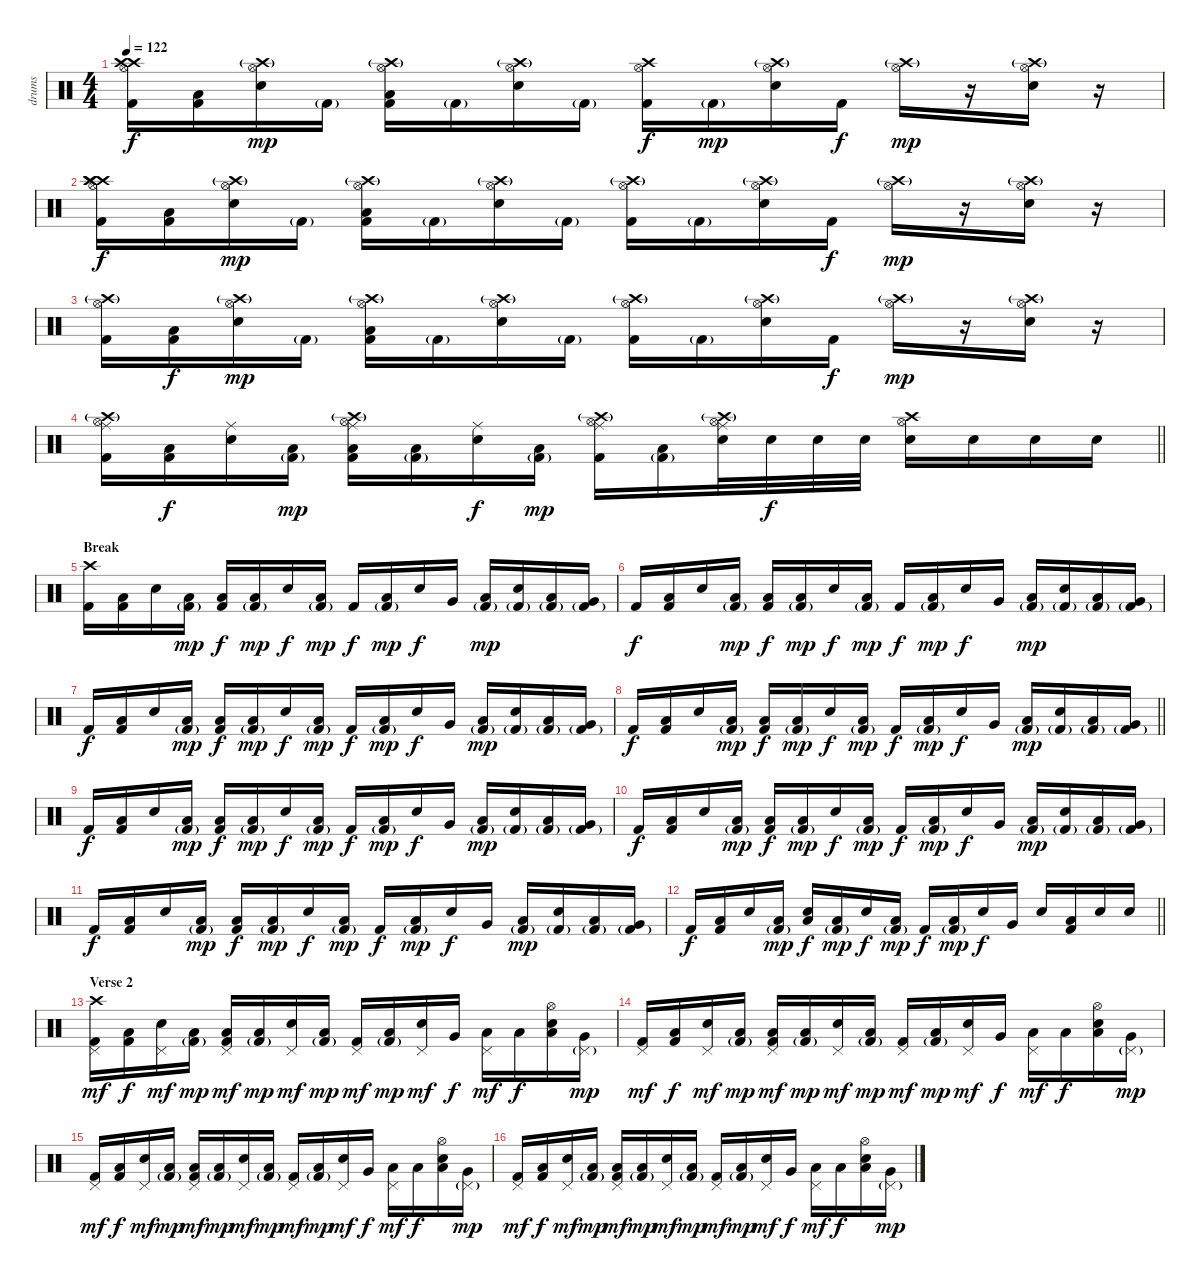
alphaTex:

\track ("drums" "drums") {instrument percussion}
\staff {score}
\articulation defaults
\ts (4 4)
\tempo 122
\clef neutral
\ks c
("Crash high (hit)" "Kick (hit) 2" "Crash high (hit)" "Hi-Hat (open)").16{dy f} ("Low Floor Tom (hit)" "Kick (hit) 2").16 ("Snare (hit) 2" "Crash high (hit)"{g} "Hi-Hat (open)").16{dy mp} "Kick (hit) 2"{g}.16{bd 60} ("Kick (hit) 2" "Low Floor Tom (hit)" "Crash high (hit)"{g} "Hi-Hat (open)").16 "Kick (hit) 2"{g}.16{bd 60} ("Snare (hit) 2" "Crash high (hit)"{g} "Hi-Hat (open)").16 "Kick (hit) 2"{g}.16{bu 60} ("Kick (hit) 2" "Crash high (hit)" "Hi-Hat (open)").16{dy f} "Kick (hit) 2"{g}.16{bd 60 dy mp} ("Snare (hit) 2" "Crash high (hit)"{g} "Hi-Hat (open)").16 "Kick (hit) 2".16{dy f} ("Crash high (hit)"{g} "Hi-Hat (open)").16{bd 60 dy mp} r.16 ("Snare (hit) 2" "Crash high (hit)"{g} "Hi-Hat (open)").16{bd 60} r.16 |
("Crash high (hit)" "Kick (hit) 2" "Crash high (hit)" "Crash high (hit)" "Hi-Hat (open)").16{dy f} ("Low Floor Tom (hit)" "Kick (hit) 2").16 ("Snare (hit) 2" "Crash high (hit)"{g} "Hi-Hat (open)").16{dy mp} "Kick (hit) 2"{g}.16{bd 60} ("Kick (hit) 2" "Low Floor Tom (hit)" "Crash high (hit)"{g} "Hi-Hat (open)").16 "Kick (hit) 2"{g}.16{bd 60} ("Snare (hit) 2" "Crash high (hit)"{g} "Hi-Hat (open)").16 "Kick (hit) 2"{g}.16{bu 60} ("Kick (hit) 2" "Crash high (hit)"{g} "Hi-Hat (open)").16 "Kick (hit) 2"{g}.16{bd 60} ("Snare (hit) 2" "Crash high (hit)"{g} "Hi-Hat (open)").16 "Kick (hit) 2".16{dy f} ("Crash high (hit)"{g} "Hi-Hat (open)").16{bd 60 dy mp} r.16 ("Snare (hit) 2" "Crash high (hit)"{g} "Hi-Hat (open)").16{bd 60} r.16 |
("Kick (hit) 2" "Crash high (hit)"{g} "Hi-Hat (open)").16 ("Low Floor Tom (hit)" "Kick (hit) 2").16{dy f} ("Snare (hit) 2" "Crash high (hit)"{g} "Hi-Hat (open)").16{dy mp} "Kick (hit) 2"{g}.16{bd 60} ("Kick (hit) 2" "Low Floor Tom (hit)" "Crash high (hit)"{g} "Hi-Hat (open)").16 "Kick (hit) 2"{g}.16{bd 60} ("Snare (hit) 2" "Crash high (hit)"{g} "Hi-Hat (open)").16 "Kick (hit) 2"{g}.16{bu 60} ("Kick (hit) 2" "Crash high (hit)"{g} "Hi-Hat (open)").16 "Kick (hit) 2"{g}.16{bd 60} ("Snare (hit) 2" "Crash high (hit)"{g} "Hi-Hat (open)").16 "Kick (hit) 2".16{dy f} ("Crash high (hit)"{g} "Hi-Hat (open)").16{bd 60 dy mp} r.16 ("Snare (hit) 2" "Crash high (hit)"{g} "Hi-Hat (open)").16{bd 60} r.16 |
\barLineRight lightlight
("Hi-Hat (open)" "Kick (hit) 2" "Crash high (hit)"{g} "Ride (middle)").16 ("Low Floor Tom (hit)" "Kick (hit) 2").16{dy f} ("Snare (hit) 2" "Ride (middle)").16 ("Low Floor Tom (hit)" "Kick (hit) 2"{g}).16{bd 60 dy mp} ("Hi-Hat (open)" "Kick (hit) 2" "Low Floor Tom (hit)" "Crash high (hit)"{g} "Ride (middle)").16 ("Low Floor Tom (hit)" "Kick (hit) 2"{g}).16{bd 60} ("Snare (hit) 2" "Ride (middle)").16{dy f} ("Low Floor Tom (hit)" "Kick (hit) 2"{g}).16{bu 60 dy mp} ("Hi-Hat (open)" "Kick (hit) 2" "Crash high (hit)"{g} "Ride (middle)").16 ("Low Floor Tom (hit)" "Kick (hit) 2"{g}).16{bd 60} ("Hi-Hat (open)" "Snare (hit) 2" "Crash high (hit)"{g} "Ride (middle)").32 "Snare (hit) 2".32{dy f} "Snare (hit) 2".32 "Snare (hit) 2".32 ("Hi-Hat (open)" "Snare (hit) 2" "Crash high (hit)").16 "Snare (hit) 2".16 "Snare (hit) 2".16 "Snare (hit) 2".16 |
\section ("" "Break")
("Crash high (hit)" "Kick (hit) 2").16 ("Low Floor Tom (hit)" "Kick (hit) 2").16 "Snare (hit) 2".16 ("Low Floor Tom (hit)" "Kick (hit) 2"{g}).16{bd 60 dy mp} ("Kick (hit) 2" "Low Floor Tom (hit)").16{dy f} ("Low Floor Tom (hit)" "Kick (hit) 2"{g}).16{bd 60 dy mp} "Snare (hit) 2".16{dy f} ("Low Floor Tom (hit)" "Kick (hit) 2"{g}).16{bu 60 dy mp} "Kick (hit) 2".16{dy f} ("Low Floor Tom (hit)" "Kick (hit) 2"{g}).16{bd 60 dy mp} "Snare (hit) 2".16{dy f} "Very Low Tom (hit)".16 ("Low Floor Tom (hit)" "Kick (hit) 2"{g}).16{bd 60 dy mp} ("Snare (hit) 2" "Kick (hit) 2"{g}).16{bu 60} ("Low Floor Tom (hit)" "Kick (hit) 2"{g}).16{bd 60} ("Very Low Tom (hit)" "Kick (hit) 2"{g}).16{bd 60} |
"Kick (hit) 2".16{dy f} ("Low Floor Tom (hit)" "Kick (hit) 2").16 "Snare (hit) 2".16 ("Low Floor Tom (hit)" "Kick (hit) 2"{g}).16{bd 60 dy mp} ("Kick (hit) 2" "Low Floor Tom (hit)").16{dy f} ("Low Floor Tom (hit)" "Kick (hit) 2"{g}).16{bd 60 dy mp} "Snare (hit) 2".16{dy f} ("Low Floor Tom (hit)" "Kick (hit) 2"{g}).16{bu 60 dy mp} "Kick (hit) 2".16{dy f} ("Low Floor Tom (hit)" "Kick (hit) 2"{g}).16{bd 60 dy mp} "Snare (hit) 2".16{dy f} "Very Low Tom (hit)".16 ("Low Floor Tom (hit)" "Kick (hit) 2"{g}).16{bd 60 dy mp} ("Snare (hit) 2" "Kick (hit) 2"{g}).16{bu 60} ("Low Floor Tom (hit)" "Kick (hit) 2"{g}).16{bd 60} ("Very Low Tom (hit)" "Kick (hit) 2"{g}).16{bd 60} |
"Kick (hit) 2".16{dy f} ("Low Floor Tom (hit)" "Kick (hit) 2").16 "Snare (hit) 2".16 ("Low Floor Tom (hit)" "Kick (hit) 2"{g}).16{bd 60 dy mp} ("Kick (hit) 2" "Low Floor Tom (hit)").16{dy f} ("Low Floor Tom (hit)" "Kick (hit) 2"{g}).16{bd 60 dy mp} "Snare (hit) 2".16{dy f} ("Low Floor Tom (hit)" "Kick (hit) 2"{g}).16{bu 60 dy mp} "Kick (hit) 2".16{dy f} ("Low Floor Tom (hit)" "Kick (hit) 2"{g}).16{bd 60 dy mp} "Snare (hit) 2".16{dy f} "Very Low Tom (hit)".16 ("Low Floor Tom (hit)" "Kick (hit) 2"{g}).16{bd 60 dy mp} ("Snare (hit) 2" "Kick (hit) 2"{g}).16{bu 60} ("Low Floor Tom (hit)" "Kick (hit) 2"{g}).16{bd 60} ("Very Low Tom (hit)" "Kick (hit) 2"{g}).16{bd 60} |
\barLineRight lightlight "Kick (hit) 2".16{dy f}
("Low Floor Tom (hit)" "Kick (hit) 2").16 "Snare (hit) 2".16 ("Low Floor Tom (hit)" "Kick (hit) 2"{g}).16{bd 60 dy mp} ("Kick (hit) 2" "Low Floor Tom (hit)").16{dy f} ("Low Floor Tom (hit)" "Kick (hit) 2"{g}).16{bd 60 dy mp} "Snare (hit) 2".16{dy f} ("Low Floor Tom (hit)" "Kick (hit) 2"{g}).16{bu 60 dy mp} "Kick (hit) 2".16{dy f} ("Low Floor Tom (hit)" "Kick (hit) 2"{g}).16{bd 60 dy mp} "Snare (hit) 2".16{dy f} "Very Low Tom (hit)".16 ("Low Floor Tom (hit)" "Kick (hit) 2"{g}).16{bd 60 dy mp} ("Snare (hit) 2" "Kick (hit) 2"{g}).16{bu 60} ("Low Floor Tom (hit)" "Kick (hit) 2"{g}).16{bd 60} ("Very Low Tom (hit)" "Kick (hit) 2"{g}).16{bd 60} |
"Kick (hit) 2".16{dy f} ("Low Floor Tom (hit)" "Kick (hit) 2").16 "Snare (hit) 2".16 ("Low Floor Tom (hit)" "Kick (hit) 2"{g}).16{bd 60 dy mp} ("Kick (hit) 2" "Low Floor Tom (hit)").16{dy f} ("Low Floor Tom (hit)" "Kick (hit) 2"{g}).16{bd 60 dy mp} "Snare (hit) 2".16{dy f} ("Low Floor Tom (hit)" "Kick (hit) 2"{g}).16{bu 60 dy mp} "Kick (hit) 2".16{dy f} ("Low Floor Tom (hit)" "Kick (hit) 2"{g}).16{bd 60 dy mp} "Snare (hit) 2".16{dy f} "Very Low Tom (hit)".16 ("Low Floor Tom (hit)" "Kick (hit) 2"{g}).16{bd 60 dy mp} ("Snare (hit) 2" "Kick (hit) 2"{g}).16{bu 60} ("Low Floor Tom (hit)" "Kick (hit) 2"{g}).16{bd 60} ("Very Low Tom (hit)" "Kick (hit) 2"{g}).16{bd 60} |
"Kick (hit) 2".16{dy f} ("Low Floor Tom (hit)" "Kick (hit) 2").16 "Snare (hit) 2".16 ("Low Floor Tom (hit)" "Kick (hit) 2"{g}).16{bd 60 dy mp} ("Kick (hit) 2" "Low Floor Tom (hit)").16{dy f} ("Low Floor Tom (hit)" "Kick (hit) 2"{g}).16{bd 60 dy mp} "Snare (hit) 2".16{dy f} ("Low Floor Tom (hit)" "Kick (hit) 2"{g}).16{bu 60 dy mp} "Kick (hit) 2".16{dy f} ("Low Floor Tom (hit)" "Kick (hit) 2"{g}).16{bd 60 dy mp} "Snare (hit) 2".16{dy f} "Very Low Tom (hit)".16 ("Low Floor Tom (hit)" "Kick (hit) 2"{g}).16{bd 60 dy mp} ("Snare (hit) 2" "Kick (hit) 2"{g}).16{bu 60} ("Low Floor Tom (hit)" "Kick (hit) 2"{g}).16{bd 60} ("Very Low Tom (hit)" "Kick (hit) 2"{g}).16{bd 60} |
"Kick (hit) 2".16{dy f} ("Low Floor Tom (hit)" "Kick (hit) 2").16 "Snare (hit) 2".16 ("Low Floor Tom (hit)" "Kick (hit) 2"{g}).16{bd 60 dy mp} ("Kick (hit) 2" "Low Floor Tom (hit)").16{dy f} ("Low Floor Tom (hit)" "Kick (hit) 2"{g}).16{bd 60 dy mp} "Snare (hit) 2".16{dy f} ("Low Floor Tom (hit)" "Kick (hit) 2"{g}).16{bu 60 dy mp} "Kick (hit) 2".16{dy f} ("Low Floor Tom (hit)" "Kick (hit) 2"{g}).16{bd 60 dy mp} "Snare (hit) 2".16{dy f} "Very Low Tom (hit)".16 ("Low Floor Tom (hit)" "Kick (hit) 2"{g}).16{bd 60 dy mp} ("Snare (hit) 2" "Kick (hit) 2"{g}).16{bu 60} ("Low Floor Tom (hit)" "Kick (hit) 2"{g}).16{bd 60} ("Very Low Tom (hit)" "Kick (hit) 2"{g}).16{bd 60} |
\barLineRight lightlight "Kick (hit) 2".16{dy f}
("Low Floor Tom (hit)" "Kick (hit) 2").16 "Snare (hit) 2".16 ("Low Floor Tom (hit)" "Kick (hit) 2"{g}).16{bd 60 dy mp} ("Snare (hit) 2" "Low Floor Tom (hit)").16{dy f} ("Low Floor Tom (hit)" "Kick (hit) 2"{g}).16{bd 60 dy mp} "Snare (hit) 2".16{dy f} ("Low Floor Tom (hit)" "Kick (hit) 2"{g}).16{bu 60 dy mp} "Kick (hit) 2".16{dy f} ("Low Floor Tom (hit)" "Kick (hit) 2"{g}).16{bd 60 dy mp} "Snare (hit) 2".16{dy f} "Very Low Tom (hit)".16 "Snare (hit) 2".16{bd 60} ("Kick (hit) 2" "Low Floor Tom (hit)").16 "Snare (hit) 2".16{bd 60} "Snare (hit) 2".16{bd 60} |
\section ("" "Verse 2")
("Kick (hit) 2" "Crash high (hit)" "Pedal Hi-Hat (hit)").16{dy mf} ("Low Floor Tom (hit)" "Kick (hit) 2").16{dy f} ("Snare (hit) 2" "Pedal Hi-Hat (hit)").16{dy mf} ("Low Floor Tom (hit)" "Kick (hit) 2"{g}).16{bd 60 dy mp} ("Kick (hit) 2" "Low Floor Tom (hit)" "Pedal Hi-Hat (hit)").16{dy mf} ("Low Floor Tom (hit)" "Kick (hit) 2"{g}).16{bd 60 dy mp} ("Snare (hit) 2" "Pedal Hi-Hat (hit)").16{dy mf} ("Low Floor Tom (hit)" "Kick (hit) 2"{g}).16{bu 60 dy mp} ("Kick (hit) 2" "Pedal Hi-Hat (hit)").16{dy mf} ("Low Floor Tom (hit)" "Kick (hit) 2"{g}).16{bd 60 dy mp} ("Snare (hit) 2" "Pedal Hi-Hat (hit)").16{dy mf} "Very Low Tom (hit)".16{dy f} ("Low Floor Tom (hit)" "Pedal Hi-Hat (hit)").16{bd 60 dy mf} "Low Tom (hit)".16{bu 60 dy f} ("Snare (hit) 2" "Low Floor Tom (hit)" "Hi-Hat (open)").16{bd 60} ("Very Low Tom (hit)" "Pedal Hi-Hat (hit)"{g}).16{bd 60 dy mp} |
("Kick (hit) 2" "Pedal Hi-Hat (hit)").16{dy mf} ("Low Floor Tom (hit)" "Kick (hit) 2").16{dy f} ("Snare (hit) 2" "Pedal Hi-Hat (hit)").16{dy mf} ("Low Floor Tom (hit)" "Kick (hit) 2"{g}).16{bd 60 dy mp} ("Kick (hit) 2" "Low Floor Tom (hit)" "Pedal Hi-Hat (hit)").16{dy mf} ("Low Floor Tom (hit)" "Kick (hit) 2"{g}).16{bd 60 dy mp} ("Snare (hit) 2" "Pedal Hi-Hat (hit)").16{dy mf} ("Low Floor Tom (hit)" "Kick (hit) 2"{g}).16{bu 60 dy mp} ("Kick (hit) 2" "Pedal Hi-Hat (hit)").16{dy mf} ("Low Floor Tom (hit)" "Kick (hit) 2"{g}).16{bd 60 dy mp} ("Snare (hit) 2" "Pedal Hi-Hat (hit)").16{dy mf} "Very Low Tom (hit)".16{dy f} ("Low Floor Tom (hit)" "Pedal Hi-Hat (hit)").16{bd 60 dy mf} "Low Tom (hit)".16{bu 60 dy f} ("Snare (hit) 2" "Low Floor Tom (hit)" "Hi-Hat (open)").16{bd 60} ("Very Low Tom (hit)" "Pedal Hi-Hat (hit)"{g}).16{bd 60 dy mp} |
("Kick (hit) 2" "Pedal Hi-Hat (hit)").16{dy mf} ("Low Floor Tom (hit)" "Kick (hit) 2").16{dy f} ("Snare (hit) 2" "Pedal Hi-Hat (hit)").16{dy mf} ("Low Floor Tom (hit)" "Kick (hit) 2"{g}).16{bd 60 dy mp} ("Kick (hit) 2" "Low Floor Tom (hit)" "Pedal Hi-Hat (hit)").16{dy mf} ("Low Floor Tom (hit)" "Kick (hit) 2"{g}).16{bd 60 dy mp} ("Snare (hit) 2" "Pedal Hi-Hat (hit)").16{dy mf} ("Low Floor Tom (hit)" "Kick (hit) 2"{g}).16{bu 60 dy mp} ("Kick (hit) 2" "Pedal Hi-Hat (hit)").16{dy mf} ("Low Floor Tom (hit)" "Kick (hit) 2"{g}).16{bd 60 dy mp} ("Snare (hit) 2" "Pedal Hi-Hat (hit)").16{dy mf} "Very Low Tom (hit)".16{dy f} ("Low Floor Tom (hit)" "Pedal Hi-Hat (hit)").16{bd 60 dy mf} "Low Tom (hit)".16{bu 60 dy f} ("Snare (hit) 2" "Low Floor Tom (hit)" "Hi-Hat (open)").16{bd 60} ("Very Low Tom (hit)" "Pedal Hi-Hat (hit)"{g}).16{bd 60 dy mp} |
("Kick (hit) 2" "Pedal Hi-Hat (hit)").16{dy mf} ("Low Floor Tom (hit)" "Kick (hit) 2").16{dy f} ("Snare (hit) 2" "Pedal Hi-Hat (hit)").16{dy mf} ("Low Floor Tom (hit)" "Kick (hit) 2"{g}).16{bd 60 dy mp} ("Kick (hit) 2" "Low Floor Tom (hit)" "Pedal Hi-Hat (hit)").16{dy mf} ("Low Floor Tom (hit)" "Kick (hit) 2"{g}).16{bd 60 dy mp} ("Snare (hit) 2" "Pedal Hi-Hat (hit)").16{dy mf} ("Low Floor Tom (hit)" "Kick (hit) 2"{g}).16{bu 60 dy mp} ("Kick (hit) 2" "Pedal Hi-Hat (hit)").16{dy mf} ("Low Floor Tom (hit)" "Kick (hit) 2"{g}).16{bd 60 dy mp} ("Snare (hit) 2" "Pedal Hi-Hat (hit)").16{dy mf} "Very Low Tom (hit)".16{dy f} ("Low Floor Tom (hit)" "Pedal Hi-Hat (hit)").16{bd 60 dy mf} "Low Tom (hit)".16{bu 60 dy f} ("Snare (hit) 2" "Low Floor Tom (hit)" "Hi-Hat (open)").16{bd 60} ("Very Low Tom (hit)" "Pedal Hi-Hat (hit)"{g}).16{bd 60 dy mp}
